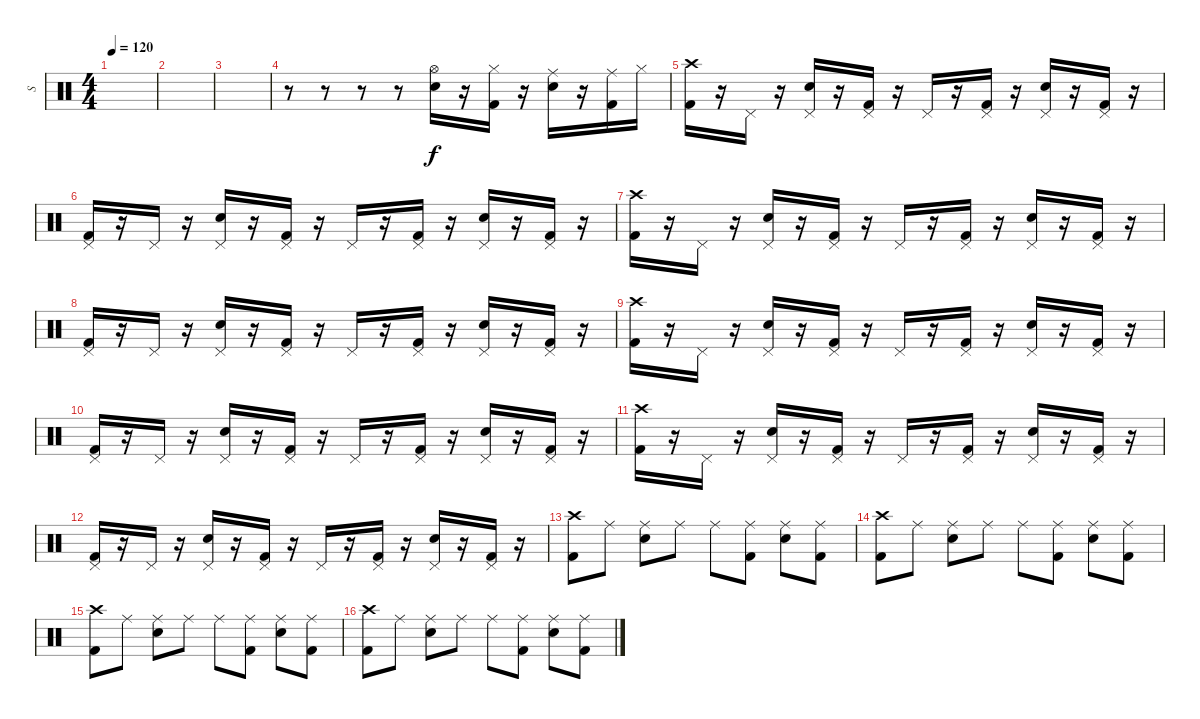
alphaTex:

\track ("  S" "  S") {instrument percussion}
\staff {score}
\articulation defaults
\ts (4 4)
\tempo 120
\clef neutral
\ks c
|
|
|
r.8 r.8 r.8 r.8 ("Hi-Hat (open)" "Snare (hit) 2").16 r.16 ("Hi-Hat (closed)" "Kick (hit) 2").16 r.16 ("Ride (middle)" "Snare (hit) 2").16 r.16 ("Ride (middle)" "Kick (hit) 2").16 "Hi-Hat (closed)".16 |
("Crash high (hit)" "Kick (hit) 2").16 r.16 "Pedal Hi-Hat (hit)".16 r.16 ("Pedal Hi-Hat (hit)" "Snare (hit) 2").16 r.16 ("Pedal Hi-Hat (hit)" "Kick (hit) 2").16 r.16 "Pedal Hi-Hat (hit)".16 r.16 ("Pedal Hi-Hat (hit)" "Kick (hit) 2").16 r.16 ("Pedal Hi-Hat (hit)" "Snare (hit) 2").16 r.16 ("Pedal Hi-Hat (hit)" "Kick (hit) 2").16 r.16 |
("Pedal Hi-Hat (hit)" "Kick (hit) 2").16 r.16 "Pedal Hi-Hat (hit)".16 r.16 ("Pedal Hi-Hat (hit)" "Snare (hit) 2").16 r.16 ("Pedal Hi-Hat (hit)" "Kick (hit) 2").16 r.16 "Pedal Hi-Hat (hit)".16 r.16 ("Pedal Hi-Hat (hit)" "Kick (hit) 2").16 r.16 ("Pedal Hi-Hat (hit)" "Snare (hit) 2").16 r.16 ("Pedal Hi-Hat (hit)" "Kick (hit) 2").16 r.16 |
("Crash high (hit)" "Kick (hit) 2").16 r.16 "Pedal Hi-Hat (hit)".16 r.16 ("Pedal Hi-Hat (hit)" "Snare (hit) 2").16 r.16 ("Pedal Hi-Hat (hit)" "Kick (hit) 2").16 r.16 "Pedal Hi-Hat (hit)".16 r.16 ("Pedal Hi-Hat (hit)" "Kick (hit) 2").16 r.16 ("Pedal Hi-Hat (hit)" "Snare (hit) 2").16 r.16 ("Pedal Hi-Hat (hit)" "Kick (hit) 2").16 r.16 |
("Pedal Hi-Hat (hit)" "Kick (hit) 2").16 r.16 "Pedal Hi-Hat (hit)".16 r.16 ("Pedal Hi-Hat (hit)" "Snare (hit) 2").16 r.16 ("Pedal Hi-Hat (hit)" "Kick (hit) 2").16 r.16 "Pedal Hi-Hat (hit)".16 r.16 ("Pedal Hi-Hat (hit)" "Kick (hit) 2").16 r.16 ("Pedal Hi-Hat (hit)" "Snare (hit) 2").16 r.16 ("Pedal Hi-Hat (hit)" "Kick (hit) 2").16 r.16 |
("Crash high (hit)" "Kick (hit) 2").16 r.16 "Pedal Hi-Hat (hit)".16 r.16 ("Pedal Hi-Hat (hit)" "Snare (hit) 2").16 r.16 ("Pedal Hi-Hat (hit)" "Kick (hit) 2").16 r.16 "Pedal Hi-Hat (hit)".16 r.16 ("Pedal Hi-Hat (hit)" "Kick (hit) 2").16 r.16 ("Pedal Hi-Hat (hit)" "Snare (hit) 2").16 r.16 ("Pedal Hi-Hat (hit)" "Kick (hit) 2").16 r.16 |
("Pedal Hi-Hat (hit)" "Kick (hit) 2").16 r.16 "Pedal Hi-Hat (hit)".16 r.16 ("Pedal Hi-Hat (hit)" "Snare (hit) 2").16 r.16 ("Pedal Hi-Hat (hit)" "Kick (hit) 2").16 r.16 "Pedal Hi-Hat (hit)".16 r.16 ("Pedal Hi-Hat (hit)" "Kick (hit) 2").16 r.16 ("Pedal Hi-Hat (hit)" "Snare (hit) 2").16 r.16 ("Pedal Hi-Hat (hit)" "Kick (hit) 2").16 r.16 |
("Crash high (hit)" "Kick (hit) 2").16 r.16 "Pedal Hi-Hat (hit)".16 r.16 ("Pedal Hi-Hat (hit)" "Snare (hit) 2").16 r.16 ("Pedal Hi-Hat (hit)" "Kick (hit) 2").16 r.16 "Pedal Hi-Hat (hit)".16 r.16 ("Pedal Hi-Hat (hit)" "Kick (hit) 2").16 r.16 ("Pedal Hi-Hat (hit)" "Snare (hit) 2").16 r.16 ("Pedal Hi-Hat (hit)" "Kick (hit) 2").16 r.16 |
("Pedal Hi-Hat (hit)" "Kick (hit) 2").16 r.16 "Pedal Hi-Hat (hit)".16 r.16 ("Pedal Hi-Hat (hit)" "Snare (hit) 2").16 r.16 ("Pedal Hi-Hat (hit)" "Kick (hit) 2").16 r.16 "Pedal Hi-Hat (hit)".16 r.16 ("Pedal Hi-Hat (hit)" "Kick (hit) 2").16 r.16 ("Pedal Hi-Hat (hit)" "Snare (hit) 2").16 r.16 ("Pedal Hi-Hat (hit)" "Kick (hit) 2").16 r.16 |
("Crash high (hit)" "Kick (hit) 2").8 "Ride (middle)".8 ("Ride (middle)" "Snare (hit) 2").8 "Ride (middle)".8 "Ride (middle)".8 ("Ride (middle)" "Kick (hit) 2").8 ("Ride (middle)" "Snare (hit) 2").8 ("Ride (middle)" "Kick (hit) 2").8 |
("Crash high (hit)" "Kick (hit) 2").8 "Ride (middle)".8 ("Ride (middle)" "Snare (hit) 2").8 "Ride (middle)".8 "Ride (middle)".8 ("Ride (middle)" "Kick (hit) 2").8 ("Ride (middle)" "Snare (hit) 2").8 ("Ride (middle)" "Kick (hit) 2").8 |
("Crash high (hit)" "Kick (hit) 2").8 "Ride (middle)".8 ("Ride (middle)" "Snare (hit) 2").8 "Ride (middle)".8 "Ride (middle)".8 ("Ride (middle)" "Kick (hit) 2").8 ("Ride (middle)" "Snare (hit) 2").8 ("Ride (middle)" "Kick (hit) 2").8 |
("Crash high (hit)" "Kick (hit) 2").8 "Ride (middle)".8 ("Ride (middle)" "Snare (hit) 2").8 "Ride (middle)".8 "Ride (middle)".8 ("Ride (middle)" "Kick (hit) 2").8 ("Ride (middle)" "Snare (hit) 2").8 ("Ride (middle)" "Kick (hit) 2").8
